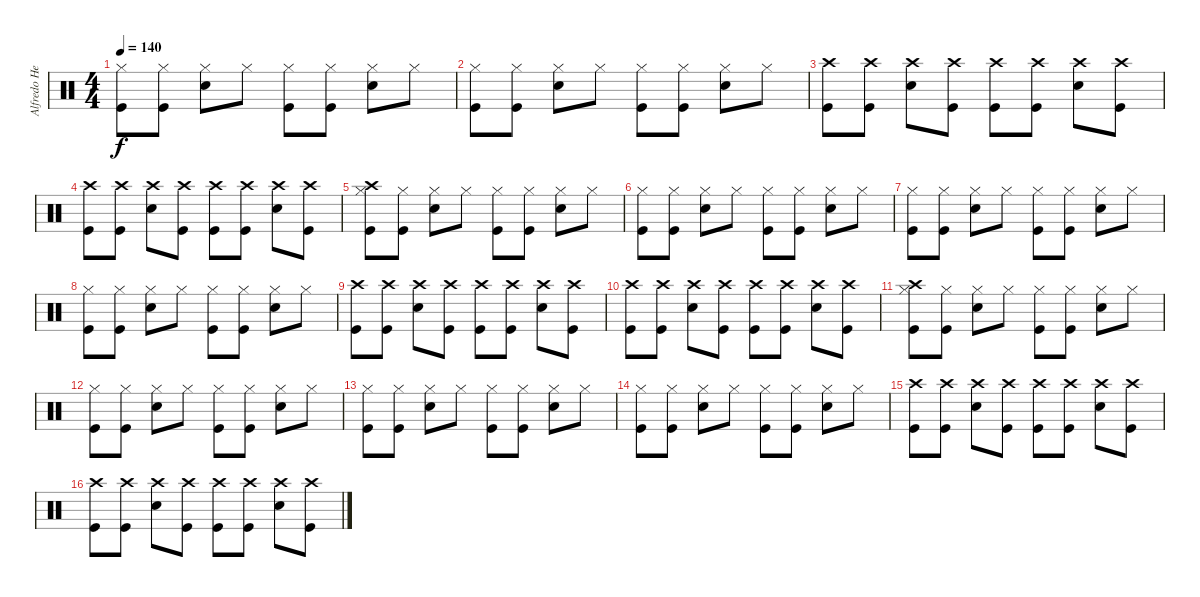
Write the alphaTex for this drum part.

\track ("Alfredo Hernandez - Percussion" "Alfredo He") {instrument percussion}
\staff {score}
\articulation defaults
\ts (4 4)
\tempo 140
\clef neutral
\ks c
("Kick (hit)" "Hi-Hat (closed)").8{dy f} ("Kick (hit)" "Hi-Hat (closed)").8 ("Snare (hit) 2" "Hi-Hat (closed)").8 "Hi-Hat (closed)".8 ("Kick (hit)" "Hi-Hat (closed)").8 ("Kick (hit)" "Hi-Hat (closed)").8 ("Snare (hit) 2" "Hi-Hat (closed)").8 "Hi-Hat (closed)".8 |
("Kick (hit)" "Hi-Hat (closed)").8 ("Kick (hit)" "Hi-Hat (closed)").8 ("Snare (hit) 2" "Hi-Hat (closed)").8 "Hi-Hat (closed)".8 ("Kick (hit)" "Hi-Hat (closed)").8 ("Kick (hit)" "Hi-Hat (closed)").8 ("Snare (hit) 2" "Hi-Hat (closed)").8 "Hi-Hat (closed)".8 |
("Kick (hit)" "Crash high (hit)").8 ("Kick (hit)" "Crash high (hit)").8 ("Snare (hit) 2" "Crash high (hit)").8 ("Kick (hit)" "Crash high (hit)").8 ("Kick (hit)" "Crash high (hit)").8 ("Kick (hit)" "Crash high (hit)").8 ("Snare (hit) 2" "Crash high (hit)").8 ("Kick (hit)" "Crash high (hit)").8 |
("Kick (hit)" "Crash high (hit)").8 ("Kick (hit)" "Crash high (hit)").8 ("Snare (hit) 2" "Crash high (hit)").8 ("Kick (hit)" "Crash high (hit)").8 ("Kick (hit)" "Crash high (hit)").8 ("Kick (hit)" "Crash high (hit)").8 ("Snare (hit) 2" "Crash high (hit)").8 ("Kick (hit)" "Crash high (hit)").8 |
("Kick (hit)" "Hi-Hat (closed)" "Crash high (hit)").8 ("Kick (hit)" "Hi-Hat (closed)").8 ("Snare (hit) 2" "Hi-Hat (closed)").8 "Hi-Hat (closed)".8 ("Kick (hit)" "Hi-Hat (closed)").8 ("Kick (hit)" "Hi-Hat (closed)").8 ("Snare (hit) 2" "Hi-Hat (closed)").8 "Hi-Hat (closed)".8 |
("Kick (hit)" "Hi-Hat (closed)").8 ("Kick (hit)" "Hi-Hat (closed)").8 ("Snare (hit) 2" "Hi-Hat (closed)").8 "Hi-Hat (closed)".8 ("Kick (hit)" "Hi-Hat (closed)").8 ("Kick (hit)" "Hi-Hat (closed)").8 ("Snare (hit) 2" "Hi-Hat (closed)").8 "Hi-Hat (closed)".8 |
("Kick (hit)" "Hi-Hat (closed)").8 ("Kick (hit)" "Hi-Hat (closed)").8 ("Snare (hit) 2" "Hi-Hat (closed)").8 "Hi-Hat (closed)".8 ("Kick (hit)" "Hi-Hat (closed)").8 ("Kick (hit)" "Hi-Hat (closed)").8 ("Snare (hit) 2" "Hi-Hat (closed)").8 "Hi-Hat (closed)".8 |
("Kick (hit)" "Hi-Hat (closed)").8 ("Kick (hit)" "Hi-Hat (closed)").8 ("Snare (hit) 2" "Hi-Hat (closed)").8 "Hi-Hat (closed)".8 ("Kick (hit)" "Hi-Hat (closed)").8 ("Kick (hit)" "Hi-Hat (closed)").8 ("Snare (hit) 2" "Hi-Hat (closed)").8 "Hi-Hat (closed)".8 |
("Kick (hit)" "Crash high (hit)").8 ("Kick (hit)" "Crash high (hit)").8 ("Snare (hit) 2" "Crash high (hit)").8 ("Kick (hit)" "Crash high (hit)").8 ("Kick (hit)" "Crash high (hit)").8 ("Kick (hit)" "Crash high (hit)").8 ("Snare (hit) 2" "Crash high (hit)").8 ("Kick (hit)" "Crash high (hit)").8 |
("Kick (hit)" "Crash high (hit)").8 ("Kick (hit)" "Crash high (hit)").8 ("Snare (hit) 2" "Crash high (hit)").8 ("Kick (hit)" "Crash high (hit)").8 ("Kick (hit)" "Crash high (hit)").8 ("Kick (hit)" "Crash high (hit)").8 ("Snare (hit) 2" "Crash high (hit)").8 ("Kick (hit)" "Crash high (hit)").8 |
("Kick (hit)" "Hi-Hat (closed)" "Crash high (hit)").8 ("Kick (hit)" "Hi-Hat (closed)").8 ("Snare (hit) 2" "Hi-Hat (closed)").8 "Hi-Hat (closed)".8 ("Kick (hit)" "Hi-Hat (closed)").8 ("Kick (hit)" "Hi-Hat (closed)").8 ("Snare (hit) 2" "Hi-Hat (closed)").8 "Hi-Hat (closed)".8 |
("Kick (hit)" "Hi-Hat (closed)").8 ("Kick (hit)" "Hi-Hat (closed)").8 ("Snare (hit) 2" "Hi-Hat (closed)").8 "Hi-Hat (closed)".8 ("Kick (hit)" "Hi-Hat (closed)").8 ("Kick (hit)" "Hi-Hat (closed)").8 ("Snare (hit) 2" "Hi-Hat (closed)").8 "Hi-Hat (closed)".8 |
("Kick (hit)" "Hi-Hat (closed)").8 ("Kick (hit)" "Hi-Hat (closed)").8 ("Snare (hit) 2" "Hi-Hat (closed)").8 "Hi-Hat (closed)".8 ("Kick (hit)" "Hi-Hat (closed)").8 ("Kick (hit)" "Hi-Hat (closed)").8 ("Snare (hit) 2" "Hi-Hat (closed)").8 "Hi-Hat (closed)".8 |
("Kick (hit)" "Hi-Hat (closed)").8 ("Kick (hit)" "Hi-Hat (closed)").8 ("Snare (hit) 2" "Hi-Hat (closed)").8 "Hi-Hat (closed)".8 ("Kick (hit)" "Hi-Hat (closed)").8 ("Kick (hit)" "Hi-Hat (closed)").8 ("Snare (hit) 2" "Hi-Hat (closed)").8 "Hi-Hat (closed)".8 |
("Kick (hit)" "Crash high (hit)").8 ("Kick (hit)" "Crash high (hit)").8 ("Snare (hit) 2" "Crash high (hit)").8 ("Kick (hit)" "Crash high (hit)").8 ("Kick (hit)" "Crash high (hit)").8 ("Kick (hit)" "Crash high (hit)").8 ("Snare (hit) 2" "Crash high (hit)").8 ("Kick (hit)" "Crash high (hit)").8 |
("Kick (hit)" "Crash high (hit)").8 ("Kick (hit)" "Crash high (hit)").8 ("Snare (hit) 2" "Crash high (hit)").8 ("Kick (hit)" "Crash high (hit)").8 ("Kick (hit)" "Crash high (hit)").8 ("Kick (hit)" "Crash high (hit)").8 ("Snare (hit) 2" "Crash high (hit)").8 ("Kick (hit)" "Crash high (hit)").8
